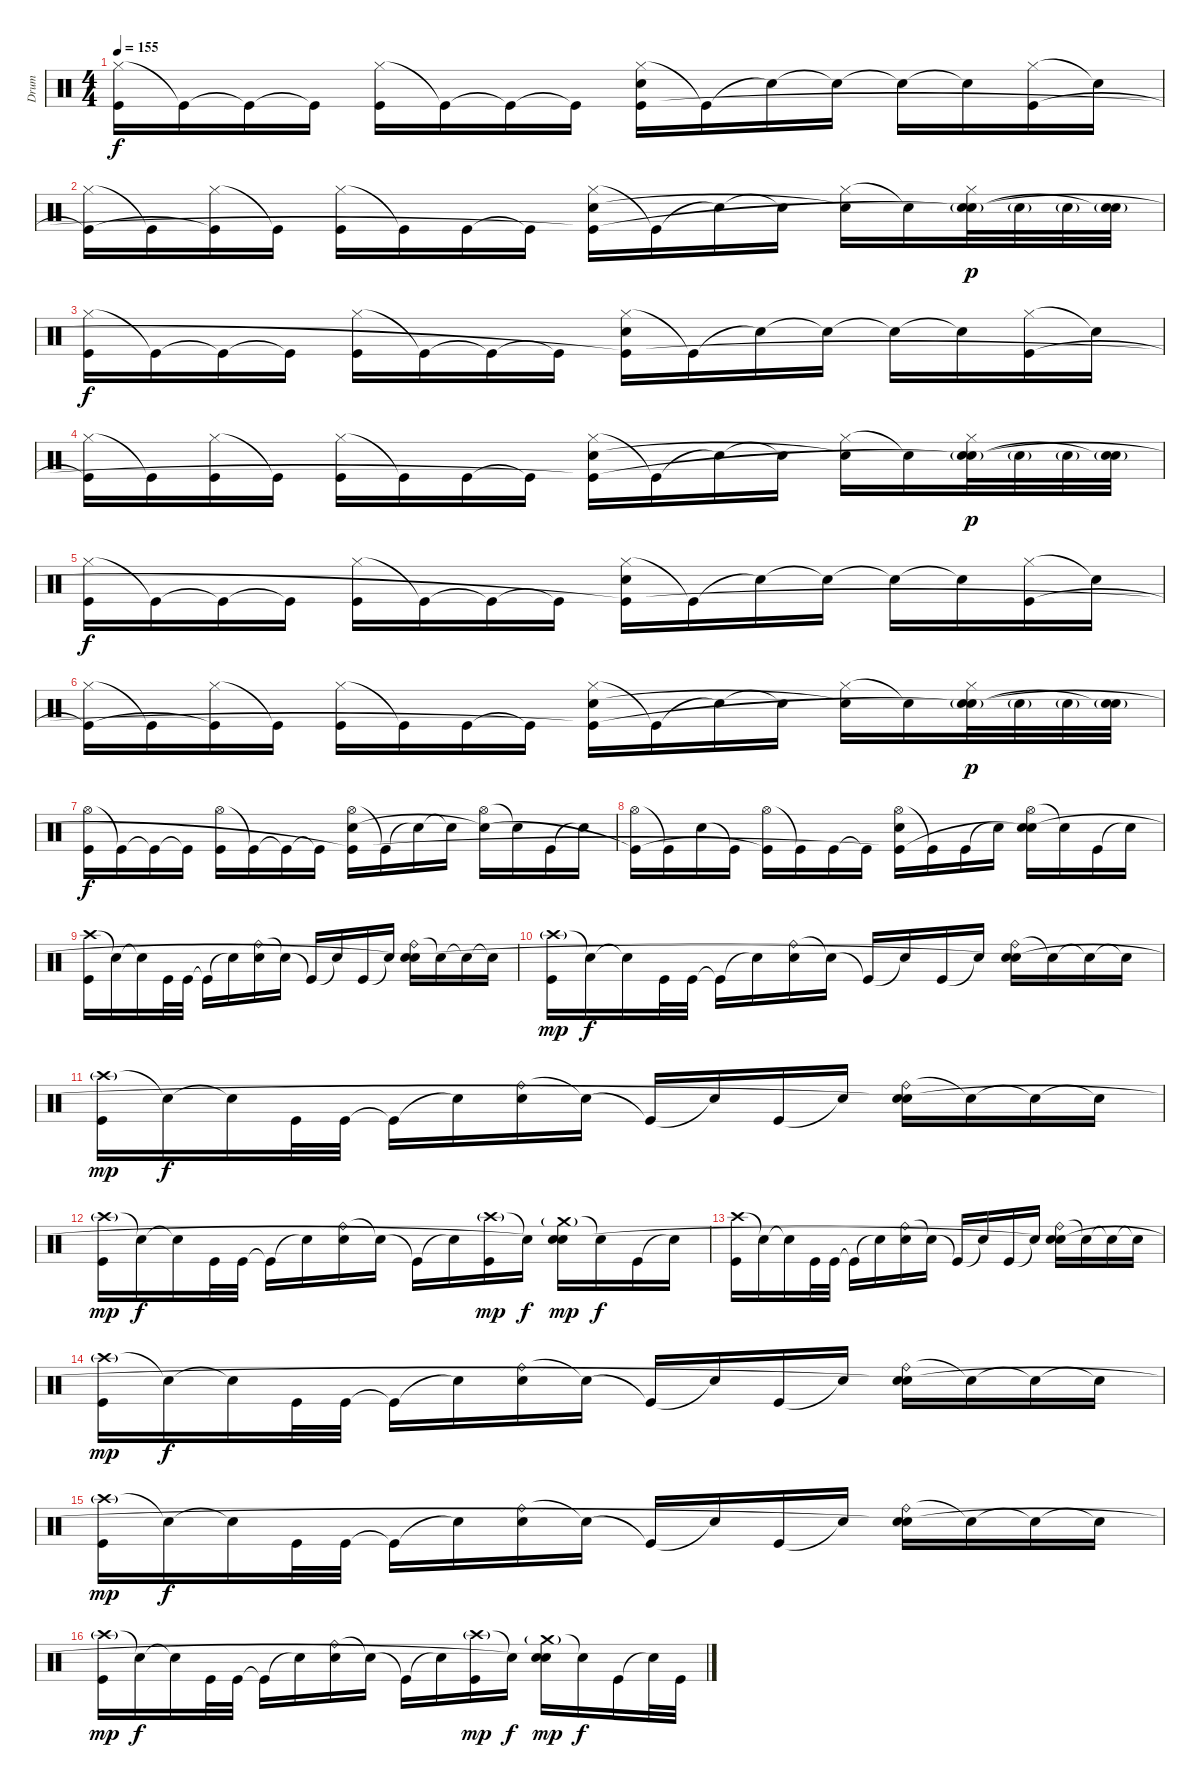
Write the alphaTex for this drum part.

\track ("Drum" "Drum") {instrument percussion}
\staff {score}
\articulation defaults
\ts (4 4)
\tempo 155
\clef neutral
\ks c
("Hi-Hat (closed)" "Kick (hit)").16{dy f} "Kick (hit)"{t}.16 "Kick (hit)"{t}.16 "Kick (hit)"{t}.16 ("Hi-Hat (closed)" "Kick (hit)").16 "Kick (hit)"{t}.16 "Kick (hit)"{t}.16 "Kick (hit)"{t}.16 ("Hi-Hat (closed)" "Electric Snare (hit)" "Kick (hit)"{t}).16 "Kick (hit)"{t}.16 "Snare (hit)"{t}.16 "Snare (hit)"{t}.16 "Snare (hit)"{t}.16 "Snare (hit)"{t}.16 ("Hi-Hat (closed)" "Kick (hit)").16 "Snare (hit)"{t}.16 |
("Hi-Hat (closed)" "Kick (hit)"{t}).16 "Kick (hit)"{t}.16 ("Hi-Hat (closed)" "Kick (hit)"{t}).16 "Kick (hit)"{t}.16 ("Hi-Hat (closed)" "Kick (hit)").16 "Kick (hit)"{t}.16 "Kick (hit)".16 "Kick (hit)"{t}.16 ("Hi-Hat (closed)" "Electric Snare (hit)" "Kick (hit)"{t}).16 "Kick (hit)"{t}.16 "Snare (hit)"{t}.16 "Snare (hit)"{t}.16 ("Hi-Hat (closed)" "Snare (hit)"{t}).16 "Snare (hit)"{t}.16 ("Hi-Hat (closed)" "Electric Snare (hit)"{g} "Snare (hit)"{t}).32{dy p} "Electric Snare (hit)"{g}.32 "Electric Snare (hit)"{g}.32 ("Electric Snare (hit)"{g} "Snare (hit)"{t}).32 |
("Hi-Hat (closed)" "Kick (hit)").16{dy f} "Kick (hit)"{t}.16 "Kick (hit)"{t}.16 "Kick (hit)"{t}.16 ("Hi-Hat (closed)" "Kick (hit)").16 "Kick (hit)"{t}.16 "Kick (hit)"{t}.16 "Kick (hit)"{t}.16 ("Hi-Hat (closed)" "Electric Snare (hit)" "Kick (hit)"{t}).16 "Kick (hit)"{t}.16 "Snare (hit)"{t}.16 "Snare (hit)"{t}.16 "Snare (hit)"{t}.16 "Snare (hit)"{t}.16 ("Hi-Hat (closed)" "Kick (hit)").16 "Snare (hit)"{t}.16 |
("Hi-Hat (closed)" "Kick (hit)"{t}).16 "Kick (hit)"{t}.16 ("Hi-Hat (closed)" "Kick (hit)").16 "Kick (hit)"{t}.16 ("Hi-Hat (closed)" "Kick (hit)").16 "Kick (hit)"{t}.16 "Kick (hit)".16 "Kick (hit)"{t}.16 ("Hi-Hat (closed)" "Electric Snare (hit)" "Kick (hit)"{t}).16 "Kick (hit)"{t}.16 "Snare (hit)"{t}.16 "Snare (hit)"{t}.16 ("Hi-Hat (closed)" "Snare (hit)"{t}).16 "Snare (hit)"{t}.16 ("Hi-Hat (closed)" "Electric Snare (hit)"{g} "Snare (hit)"{t}).32{dy p} "Electric Snare (hit)"{g}.32 "Electric Snare (hit)"{g}.32 ("Electric Snare (hit)"{g} "Snare (hit)"{t}).32 |
("Hi-Hat (closed)" "Kick (hit)").16{dy f} "Kick (hit)"{t}.16 "Kick (hit)"{t}.16 "Kick (hit)"{t}.16 ("Hi-Hat (closed)" "Kick (hit)").16 "Kick (hit)"{t}.16 "Kick (hit)"{t}.16 "Kick (hit)"{t}.16 ("Hi-Hat (closed)" "Electric Snare (hit)" "Kick (hit)"{t}).16 "Kick (hit)"{t}.16 "Snare (hit)"{t}.16 "Snare (hit)"{t}.16 "Snare (hit)"{t}.16 "Snare (hit)"{t}.16 ("Hi-Hat (closed)" "Kick (hit)").16 "Snare (hit)"{t}.16 |
("Hi-Hat (closed)" "Kick (hit)"{t}).16 "Kick (hit)"{t}.16 ("Hi-Hat (closed)" "Kick (hit)"{t}).16 "Kick (hit)"{t}.16 ("Hi-Hat (closed)" "Kick (hit)").16 "Kick (hit)"{t}.16 "Kick (hit)".16 "Kick (hit)"{t}.16 ("Hi-Hat (closed)" "Electric Snare (hit)" "Kick (hit)"{t}).16 "Kick (hit)"{t}.16 "Snare (hit)"{t}.16 "Snare (hit)"{t}.16 ("Hi-Hat (closed)" "Snare (hit)"{t}).16 "Snare (hit)"{t}.16 ("Hi-Hat (closed)" "Electric Snare (hit)"{g} "Snare (hit)"{t}).32{dy p} "Electric Snare (hit)"{g}.32 "Electric Snare (hit)"{g}.32 ("Electric Snare (hit)"{g} "Snare (hit)"{t}).32 |
("Hi-Hat (open)" "Kick (hit)").16{dy f} "Kick (hit)"{t}.16 "Kick (hit)"{t}.16 "Kick (hit)"{t}.16 ("Hi-Hat (open)" "Kick (hit)").16 "Kick (hit)"{t}.16 "Kick (hit)"{t}.16 "Kick (hit)"{t}.16 ("Hi-Hat (open)" "Electric Snare (hit)" "Kick (hit)"{t}).16 "Kick (hit)"{t}.16 "Snare (hit)"{t}.16 "Snare (hit)"{t}.16 ("Hi-Hat (open)" "Snare (hit)"{t}).16 "Snare (hit)"{t}.16 "Kick (hit)".16 "Snare (hit)"{t}.16 |
("Hi-Hat (open)" "Kick (hit)"{t}).16 "Kick (hit)"{t}.16 "Electric Snare (hit)".16 "Kick (hit)"{t}.16 ("Hi-Hat (open)" "Kick (hit)"{t}).16 "Kick (hit)"{t}.16 "Kick (hit)".16 "Kick (hit)"{t}.16 ("Hi-Hat (open)" "Electric Snare (hit)" "Kick (hit)"{t}).16 "Kick (hit)"{t}.16 "Kick (hit)".16 "Snare (hit)"{t}.16 ("Hi-Hat (open)" "Electric Snare (hit)" "Snare (hit)"{t}).16 "Snare (hit)"{t}.16 "Kick (hit)".16 "Snare (hit)"{t}.16 |
("Crash high (hit)" "Kick (hit)").16 "Snare (hit)"{t}.16 "Snare (hit)"{t}.16 "Kick (hit)".32 "Kick (hit)".32 "Kick (hit)"{t}.16 "Snare (hit)"{t}.16 ("Ride (bell)" "Electric Snare (hit)").16 "Snare (hit)"{t}.16 "Kick (hit)"{t}.16 "Snare (hit)"{t}.16 "Kick (hit)".16 "Snare (hit)"{t}.16 ("Ride (bell)" "Electric Snare (hit)" "Snare (hit)"{t}).16 "Snare (hit)"{t}.16 "Snare (hit)"{t}.16 "Snare (hit)"{t}.16 |
("Crash high (hit)"{g} "Kick (hit)").16{dy mp} "Snare (hit)"{t}.16{dy f} "Snare (hit)"{t}.16 "Kick (hit)".32 "Kick (hit)".32 "Kick (hit)"{t}.16 "Snare (hit)"{t}.16 ("Ride (bell)" "Electric Snare (hit)").16 "Snare (hit)"{t}.16 "Kick (hit)"{t}.16 "Snare (hit)"{t}.16 "Kick (hit)".16 "Snare (hit)"{t}.16 ("Ride (bell)" "Electric Snare (hit)" "Snare (hit)"{t}).16 "Snare (hit)"{t}.16 "Snare (hit)"{t}.16 "Snare (hit)"{t}.16 |
("Crash high (hit)"{g} "Kick (hit)").16{dy mp} "Snare (hit)"{t}.16{dy f} "Snare (hit)"{t}.16 "Kick (hit)".32 "Kick (hit)".32 "Kick (hit)"{t}.16 "Snare (hit)"{t}.16 ("Ride (bell)" "Electric Snare (hit)").16 "Snare (hit)"{t}.16 "Kick (hit)"{t}.16 "Snare (hit)"{t}.16 "Kick (hit)".16 "Snare (hit)"{t}.16 ("Ride (bell)" "Electric Snare (hit)" "Snare (hit)"{t}).16 "Snare (hit)"{t}.16 "Snare (hit)"{t}.16 "Snare (hit)"{t}.16 |
("Crash high (hit)"{g} "Kick (hit)").16{dy mp} "Snare (hit)"{t}.16{dy f} "Snare (hit)"{t}.16 "Kick (hit)".32 "Kick (hit)".32 "Kick (hit)"{t}.16 "Snare (hit)"{t}.16 ("Ride (bell)" "Electric Snare (hit)").16 "Snare (hit)"{t}.16 "Kick (hit)"{t}.16 "Snare (hit)"{t}.16 ("Crash high (hit)"{g} "Kick (hit)").16{dy mp} "Snare (hit)"{t}.16{dy f} ("Crash medium (hit)"{g} "Electric Snare (hit)" "Snare (hit)"{t}).16{dy mp} "Snare (hit)"{t}.16{dy f} "Kick (hit)".16 "Snare (hit)"{t}.16 |
("Crash high (hit)" "Kick (hit)").16 "Snare (hit)"{t}.16 "Snare (hit)"{t}.16 "Kick (hit)".32 "Kick (hit)".32 "Kick (hit)"{t}.16 "Snare (hit)"{t}.16 ("Ride (bell)" "Electric Snare (hit)").16 "Snare (hit)"{t}.16 "Kick (hit)"{t}.16 "Snare (hit)"{t}.16 "Kick (hit)".16 "Snare (hit)"{t}.16 ("Ride (bell)" "Electric Snare (hit)" "Snare (hit)"{t}).16 "Snare (hit)"{t}.16 "Snare (hit)"{t}.16 "Snare (hit)"{t}.16 |
("Crash high (hit)"{g} "Kick (hit)").16{dy mp} "Snare (hit)"{t}.16{dy f} "Snare (hit)"{t}.16 "Kick (hit)".32 "Kick (hit)".32 "Kick (hit)"{t}.16 "Snare (hit)"{t}.16 ("Ride (bell)" "Electric Snare (hit)").16 "Snare (hit)"{t}.16 "Kick (hit)"{t}.16 "Snare (hit)"{t}.16 "Kick (hit)".16 "Snare (hit)"{t}.16 ("Ride (bell)" "Electric Snare (hit)" "Snare (hit)"{t}).16 "Snare (hit)"{t}.16 "Snare (hit)"{t}.16 "Snare (hit)"{t}.16 |
("Crash high (hit)"{g} "Kick (hit)").16{dy mp} "Snare (hit)"{t}.16{dy f} "Snare (hit)"{t}.16 "Kick (hit)".32 "Kick (hit)".32 "Kick (hit)"{t}.16 "Snare (hit)"{t}.16 ("Ride (bell)" "Electric Snare (hit)").16 "Snare (hit)"{t}.16 "Kick (hit)"{t}.16 "Snare (hit)"{t}.16 "Kick (hit)".16 "Snare (hit)"{t}.16 ("Ride (bell)" "Electric Snare (hit)" "Snare (hit)"{t}).16 "Snare (hit)"{t}.16 "Snare (hit)"{t}.16 "Snare (hit)"{t}.16 |
("Crash high (hit)"{g} "Kick (hit)").16{dy mp} "Snare (hit)"{t}.16{dy f} "Snare (hit)"{t}.16 "Kick (hit)".32 "Kick (hit)".32 "Kick (hit)"{t}.16 "Snare (hit)"{t}.16 ("Ride (bell)" "Electric Snare (hit)").16 "Snare (hit)"{t}.16 "Kick (hit)"{t}.16 "Snare (hit)"{t}.16 ("Crash high (hit)"{g} "Kick (hit)").16{dy mp} "Snare (hit)"{t}.16{dy f} ("Crash medium (hit)"{g} "Electric Snare (hit)" "Snare (hit)"{t}).16{dy mp} "Snare (hit)"{t}.16{dy f} "Kick (hit)".16 "Snare (hit)"{t}.32 "Kick (hit)".32
